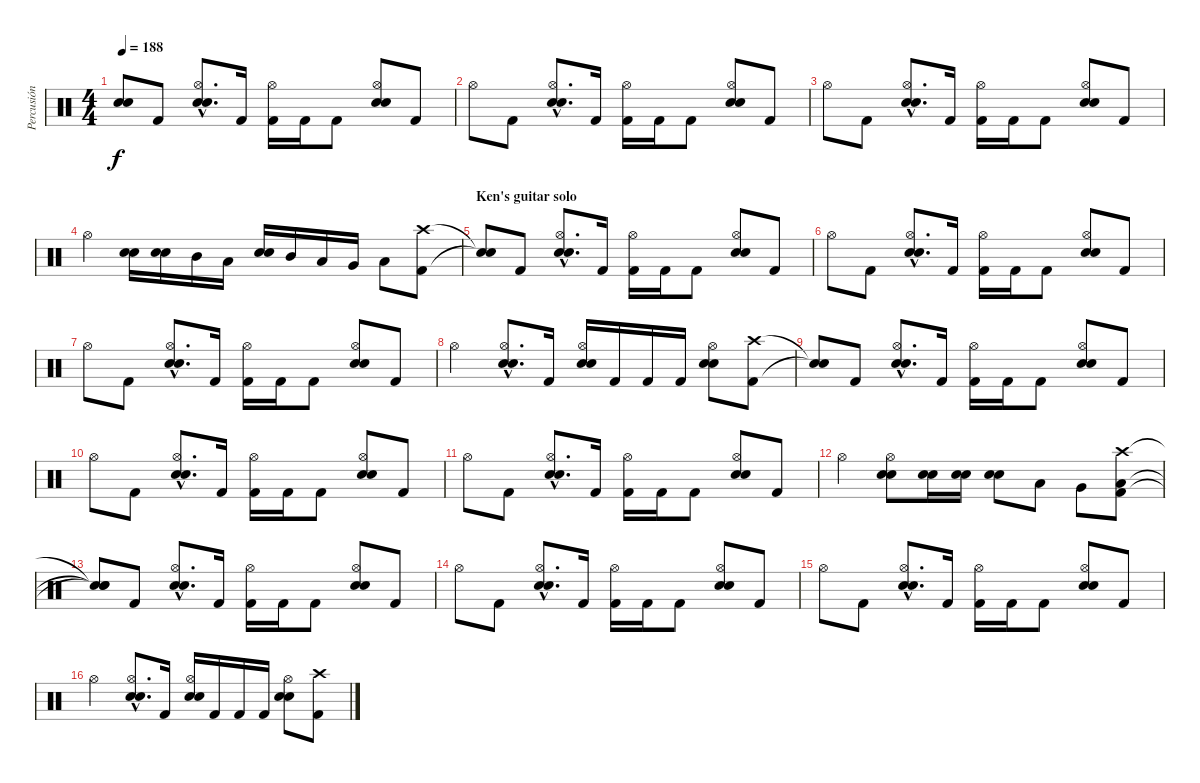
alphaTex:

\track ("Percusión" "Percusión") {instrument percussion}
\staff {score}
\articulation defaults
\ts (4 4)
\tempo 188
\clef neutral
\ks c
("Snare (hit)"{t} "Snare (hit)"{t}).8{dy f} "Kick (hit) 2".8 ("Hi-Hat (open)"{hac} "Electric Snare (hit)"{hac} "Snare (hit) 2"{hac}).8{d} "Kick (hit) 2".16 ("Hi-Hat (open)" "Kick (hit) 2").16 "Kick (hit) 2".16 "Kick (hit) 2".8 ("Hi-Hat (open)" "Electric Snare (hit)" "Snare (hit) 2").8 "Kick (hit) 2".8 |
"Hi-Hat (open)".8 "Kick (hit) 2".8 ("Hi-Hat (open)"{hac} "Electric Snare (hit)"{hac} "Snare (hit) 2"{hac}).8{d} "Kick (hit) 2".16 ("Hi-Hat (open)" "Kick (hit) 2").16 "Kick (hit) 2".16 "Kick (hit) 2".8 ("Hi-Hat (open)" "Electric Snare (hit)" "Snare (hit) 2").8 "Kick (hit) 2".8 |
"Hi-Hat (open)".8 "Kick (hit) 2".8 ("Hi-Hat (open)"{hac} "Electric Snare (hit)"{hac} "Snare (hit) 2"{hac}).8{d} "Kick (hit) 2".16 ("Hi-Hat (open)" "Kick (hit) 2").16 "Kick (hit) 2".16 "Kick (hit) 2".8 ("Hi-Hat (open)" "Electric Snare (hit)" "Snare (hit) 2").8 "Kick (hit) 2".8 |
"Hi-Hat (open)".4 ("Electric Snare (hit)" "Snare (hit) 2").16 ("Electric Snare (hit)" "Snare (hit) 2").16 "Mid Tom (hit)".16 "Low Tom (hit)".16 ("Electric Snare (hit)" "Snare (hit) 2").16 "Mid Tom (hit)".16 "Low Tom (hit)".16 "Very Low Tom (hit)".16 "Low Floor Tom (hit)".8 ("Crash high (hit)" "Kick (hit) 2").8 |
\section ("" "Ken's guitar solo")
("Snare (hit)"{t} "Snare (hit)"{t}).8 "Kick (hit) 2".8 ("Hi-Hat (open)"{hac} "Electric Snare (hit)"{hac} "Snare (hit) 2"{hac}).8{d} "Kick (hit) 2".16 ("Hi-Hat (open)" "Kick (hit) 2").16 "Kick (hit) 2".16 "Kick (hit) 2".8 ("Hi-Hat (open)" "Electric Snare (hit)" "Snare (hit) 2").8 "Kick (hit) 2".8 |
"Hi-Hat (open)".8 "Kick (hit) 2".8 ("Hi-Hat (open)"{hac} "Electric Snare (hit)"{hac} "Snare (hit) 2"{hac}).8{d} "Kick (hit) 2".16 ("Hi-Hat (open)" "Kick (hit) 2").16 "Kick (hit) 2".16 "Kick (hit) 2".8 ("Hi-Hat (open)" "Electric Snare (hit)" "Snare (hit) 2").8 "Kick (hit) 2".8 |
"Hi-Hat (open)".8 "Kick (hit) 2".8 ("Hi-Hat (open)"{hac} "Electric Snare (hit)"{hac} "Snare (hit) 2"{hac}).8{d} "Kick (hit) 2".16 ("Hi-Hat (open)" "Kick (hit) 2").16 "Kick (hit) 2".16 "Kick (hit) 2".8 ("Hi-Hat (open)" "Electric Snare (hit)" "Snare (hit) 2").8 "Kick (hit) 2".8 |
"Hi-Hat (open)".4 ("Hi-Hat (open)"{hac} "Electric Snare (hit)"{hac} "Snare (hit) 2"{hac}).8{d} "Kick (hit) 2".16 ("Hi-Hat (open)" "Electric Snare (hit)" "Snare (hit) 2").16 "Kick (hit) 2".16 "Kick (hit) 2".16 "Kick (hit) 2".16 ("Hi-Hat (open)" "Electric Snare (hit)" "Snare (hit) 2").8 ("Crash high (hit)" "Kick (hit) 2").8 |
("Snare (hit)"{t} "Snare (hit)"{t}).8 "Kick (hit) 2".8 ("Hi-Hat (open)"{hac} "Electric Snare (hit)"{hac} "Snare (hit) 2"{hac}).8{d} "Kick (hit) 2".16 ("Hi-Hat (open)" "Kick (hit) 2").16 "Kick (hit) 2".16 "Kick (hit) 2".8 ("Hi-Hat (open)" "Electric Snare (hit)" "Snare (hit) 2").8 "Kick (hit) 2".8 |
"Hi-Hat (open)".8 "Kick (hit) 2".8 ("Hi-Hat (open)"{hac} "Electric Snare (hit)"{hac} "Snare (hit) 2"{hac}).8{d} "Kick (hit) 2".16 ("Hi-Hat (open)" "Kick (hit) 2").16 "Kick (hit) 2".16 "Kick (hit) 2".8 ("Hi-Hat (open)" "Electric Snare (hit)" "Snare (hit) 2").8 "Kick (hit) 2".8 |
"Hi-Hat (open)".8 "Kick (hit) 2".8 ("Hi-Hat (open)"{hac} "Electric Snare (hit)"{hac} "Snare (hit) 2"{hac}).8{d} "Kick (hit) 2".16 ("Hi-Hat (open)" "Kick (hit) 2").16 "Kick (hit) 2".16 "Kick (hit) 2".8 ("Hi-Hat (open)" "Electric Snare (hit)" "Snare (hit) 2").8 "Kick (hit) 2".8 |
"Hi-Hat (open)".4 ("Hi-Hat (open)" "Electric Snare (hit)" "Snare (hit) 2").8 ("Electric Snare (hit)" "Snare (hit) 2").16 ("Electric Snare (hit)" "Snare (hit) 2").16 ("Electric Snare (hit)" "Snare (hit) 2").8 "Low Tom (hit)".8 "Very Low Tom (hit)".8 ("Crash high (hit)" "Low Floor Tom (hit)" "Kick (hit) 2").8 |
("Snare (hit)"{t} "Snare (hit)"{t} "Snare (hit)"{t}).8 "Kick (hit) 2".8 ("Hi-Hat (open)"{hac} "Electric Snare (hit)"{hac} "Snare (hit) 2"{hac}).8{d} "Kick (hit) 2".16 ("Hi-Hat (open)" "Kick (hit) 2").16 "Kick (hit) 2".16 "Kick (hit) 2".8 ("Hi-Hat (open)" "Electric Snare (hit)" "Snare (hit) 2").8 "Kick (hit) 2".8 |
"Hi-Hat (open)".8 "Kick (hit) 2".8 ("Hi-Hat (open)"{hac} "Electric Snare (hit)"{hac} "Snare (hit) 2"{hac}).8{d} "Kick (hit) 2".16 ("Hi-Hat (open)" "Kick (hit) 2").16 "Kick (hit) 2".16 "Kick (hit) 2".8 ("Hi-Hat (open)" "Electric Snare (hit)" "Snare (hit) 2").8 "Kick (hit) 2".8 |
"Hi-Hat (open)".8 "Kick (hit) 2".8 ("Hi-Hat (open)"{hac} "Electric Snare (hit)"{hac} "Snare (hit) 2"{hac}).8{d} "Kick (hit) 2".16 ("Hi-Hat (open)" "Kick (hit) 2").16 "Kick (hit) 2".16 "Kick (hit) 2".8 ("Hi-Hat (open)" "Electric Snare (hit)" "Snare (hit) 2").8 "Kick (hit) 2".8 |
"Hi-Hat (open)".4 ("Hi-Hat (open)"{hac} "Electric Snare (hit)"{hac} "Snare (hit) 2"{hac}).8{d} "Kick (hit) 2".16 ("Hi-Hat (open)" "Electric Snare (hit)" "Snare (hit) 2").16 "Kick (hit) 2".16 "Kick (hit) 2".16 "Kick (hit) 2".16 ("Hi-Hat (open)" "Electric Snare (hit)" "Snare (hit) 2").8 ("Crash high (hit)" "Kick (hit) 2").8
